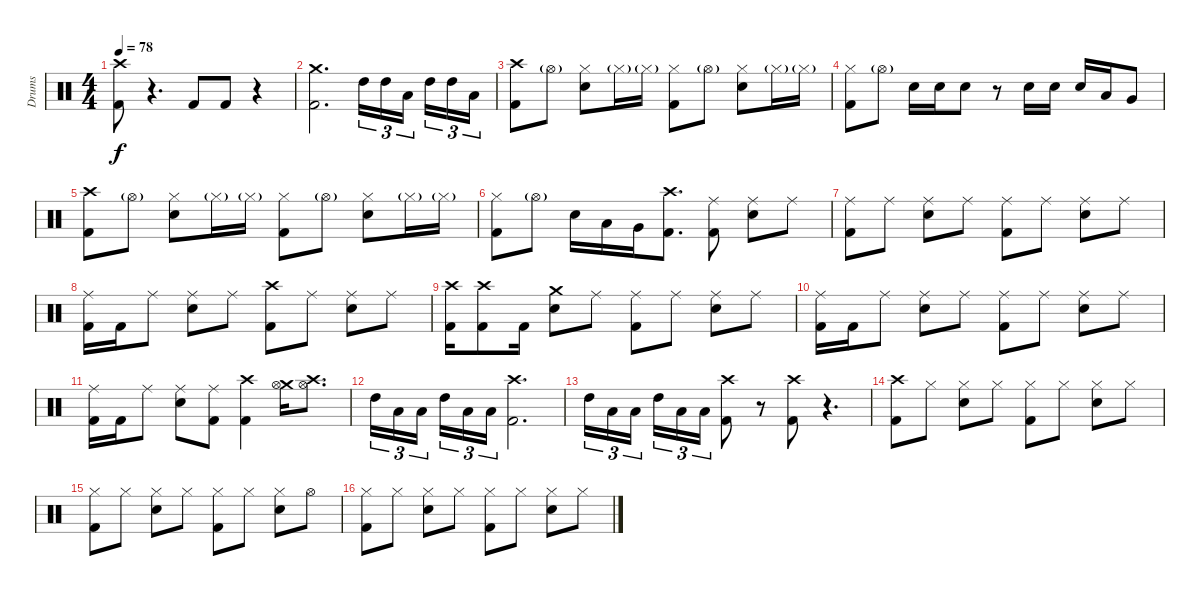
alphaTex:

\track ("Drums" "Drums") {instrument percussion}
\staff {score}
\articulation defaults
\ts (4 4)
\tempo 78
\clef neutral
\ks c
("Crash high (hit)" "Kick (hit) 2").8{dy f} r.4{d} "Kick (hit) 2".8 "Kick (hit) 2".8 r.4 |
("Crash medium (hit)" "Kick (hit) 2").2{d} "High Tom (hit)".16{tu (3 2)} "High Tom (hit)".16{tu (3 2)} "Low Tom (hit)".16{tu (3 2)} "High Tom (hit)".16{tu (3 2)} "High Tom (hit)".16{tu (3 2)} "Low Tom (hit)".16{tu (3 2)} |
("Crash high (hit)" "Kick (hit) 2").8 "Hi-Hat (open)"{g}.8 ("Hi-Hat (closed)" "Snare (hit) 2").8 "Hi-Hat (closed)"{g}.16 "Hi-Hat (closed)"{g}.16 ("Hi-Hat (closed)" "Kick (hit) 2").8 "Hi-Hat (open)"{g}.8 ("Hi-Hat (closed)" "Snare (hit) 2").8 "Hi-Hat (closed)"{g}.16 "Hi-Hat (closed)"{g}.16 |
("Hi-Hat (closed)" "Kick (hit) 2").8 "Hi-Hat (open)"{g}.8 "Snare (hit) 2".16 "Snare (hit) 2".16 "Snare (hit) 2".8 r.8 "Snare (hit) 2".16 "Snare (hit) 2".16 "Snare (hit) 2".16 "Low Tom (hit)".16 "Very Low Tom (hit)".8 |
("Crash high (hit)" "Kick (hit) 2").8 "Hi-Hat (open)"{g}.8 ("Hi-Hat (closed)" "Snare (hit) 2").8 "Hi-Hat (closed)"{g}.16 "Hi-Hat (closed)"{g}.16 ("Hi-Hat (closed)" "Kick (hit) 2").8 "Hi-Hat (open)"{g}.8 ("Hi-Hat (closed)" "Snare (hit) 2").8 "Hi-Hat (closed)"{g}.16 "Hi-Hat (closed)"{g}.16 |
("Hi-Hat (closed)" "Kick (hit) 2").8 "Hi-Hat (open)"{g}.8 "Snare (hit) 2".16 "Low Tom (hit)".16 "Very Low Tom (hit)".16 ("Crash high (hit)" "Kick (hit) 2").8{d} ("Ride (middle)" "Kick (hit) 2").8 ("Ride (middle)" "Snare (hit) 2").8 "Ride (middle)".8 |
("Ride (middle)" "Kick (hit) 2").8 "Ride (middle)".8 ("Ride (middle)" "Snare (hit) 2").8 "Ride (middle)".8 ("Ride (middle)" "Kick (hit) 2").8 "Ride (middle)".8 ("Ride (middle)" "Snare (hit) 2").8 "Ride (middle)".8 |
("Ride (middle)" "Kick (hit) 2").16 "Kick (hit) 2".16 "Ride (middle)".8 ("Ride (middle)" "Snare (hit) 2").8 "Ride (middle)".8 ("Crash high (hit)" "Kick (hit) 2").8 "Ride (middle)".8 ("Ride (middle)" "Snare (hit) 2").8 "Ride (middle)".8 |
("Crash high (hit)" "Kick (hit) 2").16 ("Crash high (hit)" "Kick (hit) 2").8 "Kick (hit) 2".16 ("Crash medium (hit)" "Snare (hit) 2").8 "Ride (middle)".8 ("Ride (middle)" "Kick (hit) 2").8 "Ride (middle)".8 ("Ride (middle)" "Snare (hit) 2").8 "Ride (middle)".8 |
("Ride (middle)" "Kick (hit) 2").16 "Kick (hit) 2".16 "Ride (middle)".8 ("Ride (middle)" "Snare (hit) 2").8 "Ride (middle)".8 ("Ride (middle)" "Kick (hit) 2").8 "Ride (middle)".8 ("Ride (middle)" "Snare (hit) 2").8 "Ride (middle)".8 |
("Ride (middle)" "Kick (hit) 2").16 "Kick (hit) 2".16 "Ride (middle)".8 ("Ride (middle)" "Snare (hit) 2").8 ("Ride (middle)" "Kick (hit) 2").8 ("Crash high (hit)" "Kick (hit) 2").4 ("Crash medium (hit)" "Hi-Hat (open)").16 ("Crash high (hit)" "Hi-Hat (open)").8{d} |
"High Tom (hit)".16{tu (3 2)} "Low Tom (hit)".16{tu (3 2)} "Low Tom (hit)".16{tu (3 2)} "High Tom (hit)".16{tu (3 2)} "Low Tom (hit)".16{tu (3 2)} "Low Tom (hit)".16{tu (3 2)} ("Crash high (hit)" "Kick (hit) 2").2{d} |
"High Tom (hit)".16{tu (3 2)} "Low Tom (hit)".16{tu (3 2)} "Low Tom (hit)".16{tu (3 2)} "High Tom (hit)".16{tu (3 2)} "Low Tom (hit)".16{tu (3 2)} "Low Tom (hit)".16{tu (3 2)} ("Crash high (hit)" "Kick (hit) 2").8 r.8 ("Crash high (hit)" "Kick (hit) 2").8 r.4{d} |
("Crash high (hit)" "Kick (hit) 2").8 "Hi-Hat (closed)".8 ("Hi-Hat (closed)" "Snare (hit) 2").8 "Hi-Hat (closed)".8 ("Hi-Hat (closed)" "Kick (hit) 2").8 "Hi-Hat (closed)".8 ("Hi-Hat (closed)" "Snare (hit) 2").8 "Hi-Hat (closed)".8 |
("Hi-Hat (closed)" "Kick (hit) 2").8 "Hi-Hat (closed)".8 ("Hi-Hat (closed)" "Snare (hit) 2").8 "Hi-Hat (closed)".8 ("Hi-Hat (closed)" "Kick (hit) 2").8 "Hi-Hat (closed)".8 ("Hi-Hat (closed)" "Snare (hit) 2").8 "Hi-Hat (open)".8 |
("Hi-Hat (closed)" "Kick (hit) 2").8 "Hi-Hat (closed)".8 ("Hi-Hat (closed)" "Snare (hit) 2").8 "Hi-Hat (closed)".8 ("Hi-Hat (closed)" "Kick (hit) 2").8 "Hi-Hat (closed)".8 ("Hi-Hat (closed)" "Snare (hit) 2").8 "Hi-Hat (closed)".8
